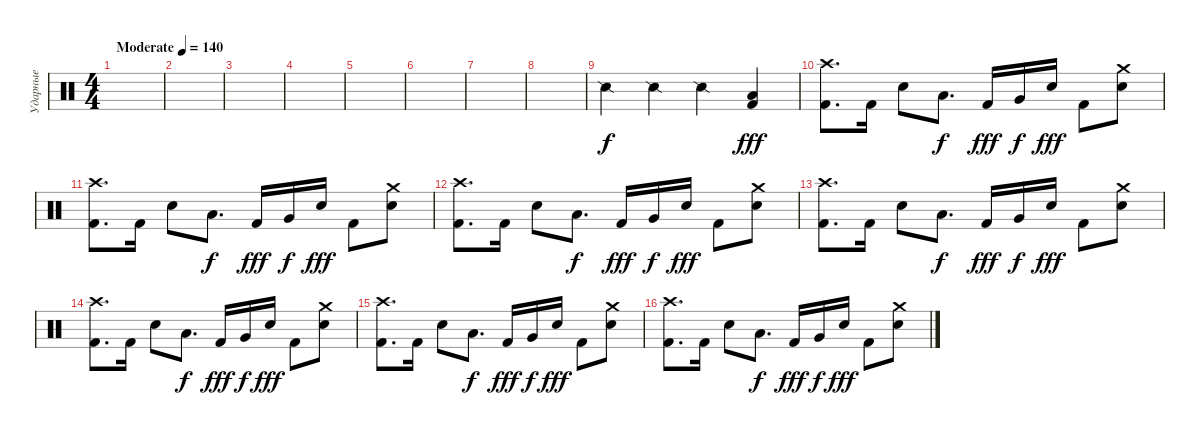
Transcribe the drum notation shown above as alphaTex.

\track ("Ударные" "Ударные") {instrument percussion}
\staff {score}
\articulation defaults
\ts (4 4)
\tempo (140 "Moderate")
\clef neutral
\ks c
|
|
|
|
|
|
|
|
"Snare (side stick) 2".4 "Snare (side stick) 2".4 "Snare (side stick) 2".4 ("Kick (hit) 2" "Low Floor Tom (hit)").4{dy fff} |
("Kick (hit) 2" "Crash high (hit)").8{d} "Kick (hit) 2".16 "Electric Snare (hit)".8 "Low Floor Tom (hit)".8{d dy f} "Kick (hit) 2".16{dy fff} "Very Low Tom (hit)".16{dy f} "Electric Snare (hit)".16{dy fff} "Kick (hit) 2".8 ("Electric Snare (hit)" "Crash medium (hit)").8 |
("Kick (hit) 2" "Crash high (hit)").8{d} "Kick (hit) 2".16 "Electric Snare (hit)".8 "Low Floor Tom (hit)".8{d dy f} "Kick (hit) 2".16{dy fff} "Very Low Tom (hit)".16{dy f} "Electric Snare (hit)".16{dy fff} "Kick (hit) 2".8 ("Electric Snare (hit)" "Crash medium (hit)").8 |
("Kick (hit) 2" "Crash high (hit)").8{d} "Kick (hit) 2".16 "Electric Snare (hit)".8 "Low Floor Tom (hit)".8{d dy f} "Kick (hit) 2".16{dy fff} "Very Low Tom (hit)".16{dy f} "Electric Snare (hit)".16{dy fff} "Kick (hit) 2".8 ("Electric Snare (hit)" "Crash medium (hit)").8 |
("Kick (hit) 2" "Crash high (hit)").8{d} "Kick (hit) 2".16 "Electric Snare (hit)".8 "Low Floor Tom (hit)".8{d dy f} "Kick (hit) 2".16{dy fff} "Very Low Tom (hit)".16{dy f} "Electric Snare (hit)".16{dy fff} "Kick (hit) 2".8 ("Electric Snare (hit)" "Crash medium (hit)").8 |
("Kick (hit) 2" "Crash high (hit)").8{d} "Kick (hit) 2".16 "Electric Snare (hit)".8 "Low Floor Tom (hit)".8{d dy f} "Kick (hit) 2".16{dy fff} "Very Low Tom (hit)".16{dy f} "Electric Snare (hit)".16{dy fff} "Kick (hit) 2".8 ("Electric Snare (hit)" "Crash medium (hit)").8 |
("Kick (hit) 2" "Crash high (hit)").8{d} "Kick (hit) 2".16 "Electric Snare (hit)".8 "Low Floor Tom (hit)".8{d dy f} "Kick (hit) 2".16{dy fff} "Very Low Tom (hit)".16{dy f} "Electric Snare (hit)".16{dy fff} "Kick (hit) 2".8 ("Electric Snare (hit)" "Crash medium (hit)").8 |
("Kick (hit) 2" "Crash high (hit)").8{d} "Kick (hit) 2".16 "Electric Snare (hit)".8 "Low Floor Tom (hit)".8{d dy f} "Kick (hit) 2".16{dy fff} "Very Low Tom (hit)".16{dy f} "Electric Snare (hit)".16{dy fff} "Kick (hit) 2".8 ("Electric Snare (hit)" "Crash medium (hit)").8
